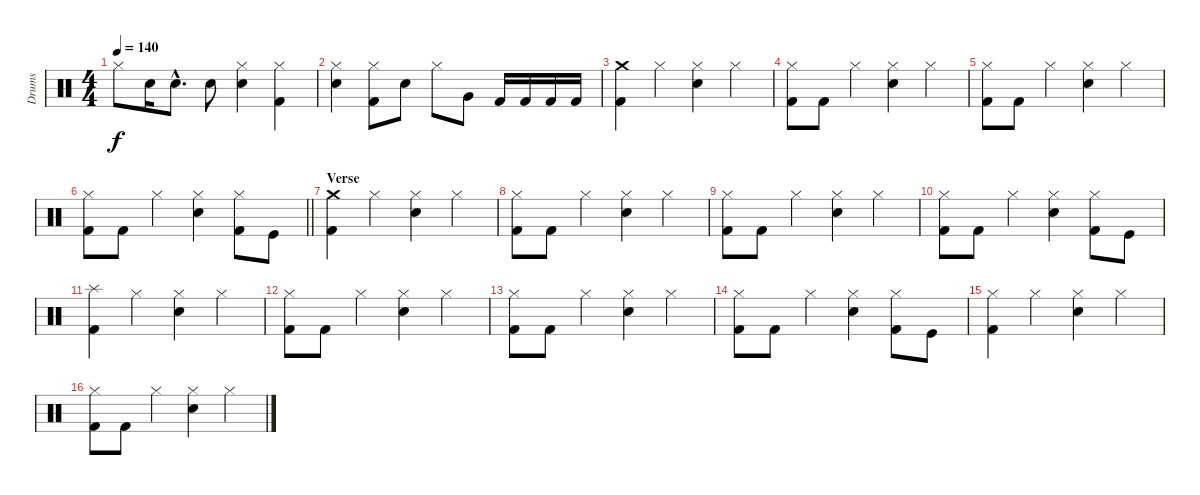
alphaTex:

\track ("Drums" "Drums") {instrument percussion}
\staff {score}
\articulation defaults
\ts (4 4)
\tempo 140
\clef neutral
\ks c "Hi-Hat (closed)".8{dy f} "Snare (hit) 2".16 "Snare (hit) 2"{hac}.8{d} "Snare (hit) 2".8
("Hi-Hat (closed)" "Snare (hit) 2").4 ("Hi-Hat (closed)" "Kick (hit) 2").4 |
("Hi-Hat (closed)" "Snare (hit) 2").4 ("Hi-Hat (closed)" "Kick (hit) 2").8 "Snare (hit) 2".8 "Hi-Hat (closed)".8 "Very Low Tom (hit)".8 "Kick (hit) 2".16 "Kick (hit) 2".16 "Kick (hit) 2".16 "Kick (hit) 2".16 |
("Crash medium (hit)" "Kick (hit) 2").4 "Hi-Hat (closed)".4 ("Hi-Hat (closed)" "Snare (hit) 2").4 "Hi-Hat (closed)".4 |
("Hi-Hat (closed)" "Kick (hit) 2").8 "Kick (hit) 2".8 "Hi-Hat (closed)".4 ("Hi-Hat (closed)" "Snare (hit) 2").4 "Hi-Hat (closed)".4 |
("Hi-Hat (closed)" "Kick (hit) 2").8 "Kick (hit) 2".8 "Hi-Hat (closed)".4 ("Hi-Hat (closed)" "Snare (hit) 2").4 "Hi-Hat (closed)".4 |
\barLineRight lightlight
("Hi-Hat (closed)" "Kick (hit) 2").8 "Kick (hit) 2".8 "Hi-Hat (closed)".4 ("Hi-Hat (closed)" "Snare (hit) 2").4 ("Hi-Hat (closed)" "Kick (hit) 2").8 "Kick (hit)".8 |
\section ("" "Verse")
("Crash medium (hit)" "Kick (hit) 2").4 "Hi-Hat (closed)".4 ("Hi-Hat (closed)" "Snare (hit) 2").4 "Hi-Hat (closed)".4 |
("Hi-Hat (closed)" "Kick (hit) 2").8 "Kick (hit) 2".8 "Hi-Hat (closed)".4 ("Hi-Hat (closed)" "Snare (hit) 2").4 "Hi-Hat (closed)".4 |
("Hi-Hat (closed)" "Kick (hit) 2").8 "Kick (hit) 2".8 "Hi-Hat (closed)".4 ("Hi-Hat (closed)" "Snare (hit) 2").4 "Hi-Hat (closed)".4 |
("Hi-Hat (closed)" "Kick (hit) 2").8 "Kick (hit) 2".8 "Hi-Hat (closed)".4 ("Hi-Hat (closed)" "Snare (hit) 2").4 ("Hi-Hat (closed)" "Kick (hit) 2").8 "Kick (hit)".8 |
("Splash (hit)" "Kick (hit) 2").4 "Hi-Hat (closed)".4 ("Hi-Hat (closed)" "Snare (hit) 2").4 "Hi-Hat (closed)".4 |
("Hi-Hat (closed)" "Kick (hit) 2").8 "Kick (hit) 2".8 "Hi-Hat (closed)".4 ("Hi-Hat (closed)" "Snare (hit) 2").4 "Hi-Hat (closed)".4 |
("Hi-Hat (closed)" "Kick (hit) 2").8 "Kick (hit) 2".8 "Hi-Hat (closed)".4 ("Hi-Hat (closed)" "Snare (hit) 2").4 "Hi-Hat (closed)".4 |
("Hi-Hat (closed)" "Kick (hit) 2").8 "Kick (hit) 2".8 "Hi-Hat (closed)".4 ("Hi-Hat (closed)" "Snare (hit) 2").4 ("Hi-Hat (closed)" "Kick (hit) 2").8 "Kick (hit)".8 |
("Hi-Hat (closed)" "Kick (hit) 2").4 "Hi-Hat (closed)".4 ("Hi-Hat (closed)" "Snare (hit) 2").4 "Hi-Hat (closed)".4 |
("Hi-Hat (closed)" "Kick (hit) 2").8 "Kick (hit) 2".8 "Hi-Hat (closed)".4 ("Hi-Hat (closed)" "Snare (hit) 2").4 "Hi-Hat (closed)".4
